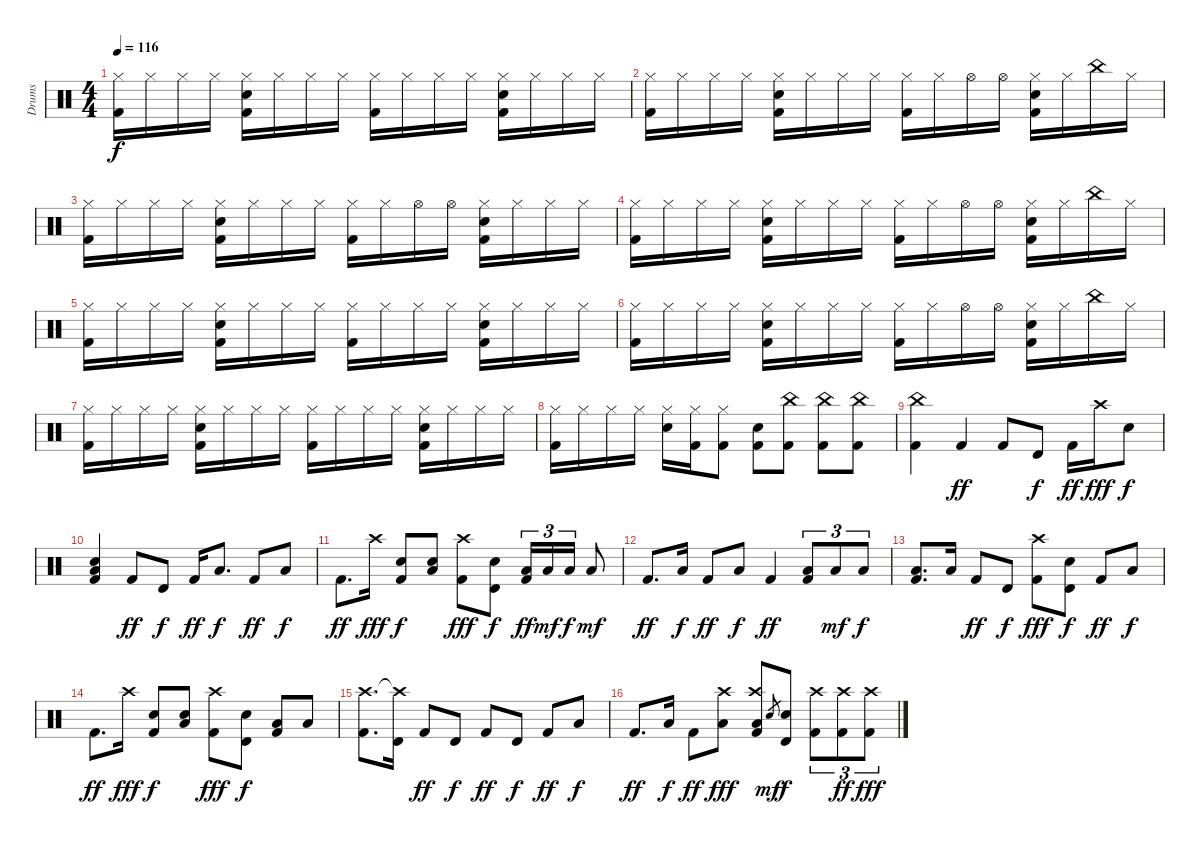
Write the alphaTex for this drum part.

\track ("Drums" "Drums") {instrument percussion}
\staff {score}
\articulation defaults
\ts (4 4)
\tempo 116
\clef neutral
\ks c
("Hi-Hat (closed)" "Kick (hit) 2").16{dy f} "Hi-Hat (closed)".16 "Hi-Hat (closed)".16 "Hi-Hat (closed)".16 ("Hi-Hat (closed)" "Snare (hit) 2" "Kick (hit) 2").16 "Hi-Hat (closed)".16 "Hi-Hat (closed)".16 "Hi-Hat (closed)".16 ("Hi-Hat (closed)" "Kick (hit) 2").16 "Hi-Hat (closed)".16 "Hi-Hat (closed)".16 "Hi-Hat (closed)".16 ("Hi-Hat (closed)" "Snare (hit) 2" "Kick (hit) 2").16 "Hi-Hat (closed)".16 "Hi-Hat (closed)".16 "Hi-Hat (closed)".16 |
("Hi-Hat (closed)" "Kick (hit) 2").16 "Hi-Hat (closed)".16 "Hi-Hat (closed)".16 "Hi-Hat (closed)".16 ("Hi-Hat (closed)" "Snare (hit) 2" "Kick (hit) 2").16 "Hi-Hat (closed)".16 "Hi-Hat (closed)".16 "Hi-Hat (closed)".16 ("Hi-Hat (closed)" "Kick (hit) 2").16 "Hi-Hat (closed)".16 "Hi-Hat (open)".16 "Hi-Hat (open)".16 ("Hi-Hat (closed)" "Snare (hit) 2" "Kick (hit) 2").16 "Hi-Hat (closed)".16 "China (hit)".16 "Hi-Hat (closed)".16 |
("Hi-Hat (closed)" "Kick (hit) 2").16 "Hi-Hat (closed)".16 "Hi-Hat (closed)".16 "Hi-Hat (closed)".16 ("Hi-Hat (closed)" "Snare (hit) 2" "Kick (hit) 2").16 "Hi-Hat (closed)".16 "Hi-Hat (closed)".16 "Hi-Hat (closed)".16 ("Hi-Hat (closed)" "Kick (hit) 2").16 "Hi-Hat (closed)".16 "Hi-Hat (open)".16 "Hi-Hat (open)".16 ("Hi-Hat (closed)" "Snare (hit) 2" "Kick (hit) 2").16 "Hi-Hat (closed)".16 "Hi-Hat (closed)".16 "Hi-Hat (closed)".16 |
("Hi-Hat (closed)" "Kick (hit) 2").16 "Hi-Hat (closed)".16 "Hi-Hat (closed)".16 "Hi-Hat (closed)".16 ("Hi-Hat (closed)" "Snare (hit) 2" "Kick (hit) 2").16 "Hi-Hat (closed)".16 "Hi-Hat (closed)".16 "Hi-Hat (closed)".16 ("Hi-Hat (closed)" "Kick (hit) 2").16 "Hi-Hat (closed)".16 "Hi-Hat (open)".16 "Hi-Hat (open)".16 ("Hi-Hat (closed)" "Snare (hit) 2" "Kick (hit) 2").16 "Hi-Hat (closed)".16 "China (hit)".16 "Hi-Hat (closed)".16 |
("Hi-Hat (closed)" "Kick (hit) 2").16 "Hi-Hat (closed)".16 "Hi-Hat (closed)".16 "Hi-Hat (closed)".16 ("Hi-Hat (closed)" "Snare (hit) 2" "Kick (hit) 2").16 "Hi-Hat (closed)".16 "Hi-Hat (closed)".16 "Hi-Hat (closed)".16 ("Hi-Hat (closed)" "Kick (hit) 2").16 "Hi-Hat (closed)".16 "Hi-Hat (closed)".16 "Hi-Hat (closed)".16 ("Hi-Hat (closed)" "Snare (hit) 2" "Kick (hit) 2").16 "Hi-Hat (closed)".16 "Hi-Hat (closed)".16 "Hi-Hat (closed)".16 |
("Hi-Hat (closed)" "Kick (hit) 2").16 "Hi-Hat (closed)".16 "Hi-Hat (closed)".16 "Hi-Hat (closed)".16 ("Hi-Hat (closed)" "Snare (hit) 2" "Kick (hit) 2").16 "Hi-Hat (closed)".16 "Hi-Hat (closed)".16 "Hi-Hat (closed)".16 ("Hi-Hat (closed)" "Kick (hit) 2").16 "Hi-Hat (closed)".16 "Hi-Hat (open)".16 "Hi-Hat (open)".16 ("Hi-Hat (closed)" "Snare (hit) 2" "Kick (hit) 2").16 "Hi-Hat (closed)".16 "China (hit)".16 "Hi-Hat (closed)".16 |
("Hi-Hat (closed)" "Kick (hit) 2").16 "Hi-Hat (closed)".16 "Hi-Hat (closed)".16 "Hi-Hat (closed)".16 ("Hi-Hat (closed)" "Snare (hit) 2" "Kick (hit) 2").16 "Hi-Hat (closed)".16 "Hi-Hat (closed)".16 "Hi-Hat (closed)".16 ("Hi-Hat (closed)" "Kick (hit) 2").16 "Hi-Hat (closed)".16 "Hi-Hat (closed)".16 "Hi-Hat (closed)".16 ("Hi-Hat (closed)" "Snare (hit) 2" "Kick (hit) 2").16 "Hi-Hat (closed)".16 "Hi-Hat (closed)".16 "Hi-Hat (closed)".16 |
("Hi-Hat (closed)" "Kick (hit) 2").16 "Hi-Hat (closed)".16 "Hi-Hat (closed)".16 "Hi-Hat (closed)".16 ("Hi-Hat (closed)" "Snare (hit) 2").16 ("Hi-Hat (closed)" "Kick (hit) 2").16 ("Hi-Hat (closed)" "Kick (hit) 2").8 ("Snare (hit) 2" "Kick (hit) 2").8 ("China (hit)" "Kick (hit) 2").8 ("China (hit)" "Kick (hit) 2").8 ("China (hit)" "Kick (hit) 2").8 |
("China (hit)" "Kick (hit) 2").4 "Kick (hit) 2".4{dy ff} "Kick (hit) 2".8 "Timbale high (hit)".8{dy f} "Kick (hit) 2".16{dy ff} "Crash high (hit)".16{dy fff} "Snare (hit)".8{dy f} |
("Snare (hit)" "Low Floor Tom (hit)" "Kick (hit) 2").4 "Kick (hit) 2".8{dy ff} "Timbale high (hit)".8{dy f} "Kick (hit) 2".16{dy ff} "Low Floor Tom (hit)".8{d dy f} "Kick (hit) 2".8{dy ff} "Low Floor Tom (hit)".8{dy f} |
"Kick (hit) 2".8{d dy ff} "Crash high (hit)".16{dy fff} ("Snare (hit)" "Kick (hit) 2").8{dy f} ("Snare (hit)" "Low Floor Tom (hit)").8 ("Crash high (hit)" "Kick (hit) 2").8{dy fff} ("Snare (hit)" "Timbale high (hit)").8{dy f} ("Low Floor Tom (hit)" "Kick (hit) 2").16{tu (3 2) dy ff} "Low Floor Tom (hit)".16{tu (3 2) dy mf} "Low Floor Tom (hit)".16{tu (3 2) dy f} "Low Floor Tom (hit)".8{dy mf} |
"Kick (hit) 2".8{d dy ff} "Low Floor Tom (hit)".16{dy f} "Kick (hit) 2".8{dy ff} "Low Floor Tom (hit)".8{dy f} "Kick (hit) 2".4{dy ff} ("Low Tom (hit)" "Kick (hit) 2").8{tu (3 2)} "Low Tom (hit)".8{tu (3 2) dy mf} "Low Tom (hit)".8{tu (3 2) dy f} |
("Low Tom (hit)" "Kick (hit) 2").8{d} "Low Floor Tom (hit)".16 "Kick (hit) 2".8{dy ff} "Timbale high (hit)".8{dy f} ("Crash high (hit)" "Kick (hit) 2").8{dy fff} ("Snare (hit)" "Timbale high (hit)").8{dy f} "Kick (hit) 2".8{dy ff} "Low Tom (hit)".8{dy f} |
"Kick (hit) 2".8{d dy ff} "Crash high (hit)".16{dy fff} ("Snare (hit)" "Kick (hit) 2").8{dy f} ("Snare (hit)" "Low Floor Tom (hit)").8 ("Crash high (hit)" "Kick (hit) 2").8{dy fff} ("Snare (hit)" "Timbale high (hit)").8{dy f} ("Low Tom (hit)" "Kick (hit) 2").8 "Low Tom (hit)".8 |
("Crash high (hit)" "Kick (hit) 2").8{d} ("Crash high (hit)"{t} "Timbale high (hit)").16 "Kick (hit) 2".8{dy ff} "Timbale high (hit)".8{dy f} "Kick (hit) 2".8{dy ff} "Timbale high (hit)".8{dy f} "Kick (hit) 2".8{dy ff} "Low Floor Tom (hit)".8{dy f} |
"Kick (hit) 2".8{d dy ff} "Low Floor Tom (hit)".16{dy f} "Kick (hit) 2".8{dy ff} ("Crash high (hit)" "Low Floor Tom (hit)").8{dy fff} ("Crash high (hit)" "Low Floor Tom (hit)" "Kick (hit) 2").8 "Snare (hit)".8{gr dy mf} ("Snare (hit)" "Timbale high (hit)").8{dy f} ("Crash high (hit)" "Kick (hit) 2").8{tu (3 2)} ("Crash high (hit)" "Kick (hit) 2").8{tu (3 2) dy ff} ("Crash high (hit)" "Kick (hit) 2").8{tu (3 2) dy fff}
